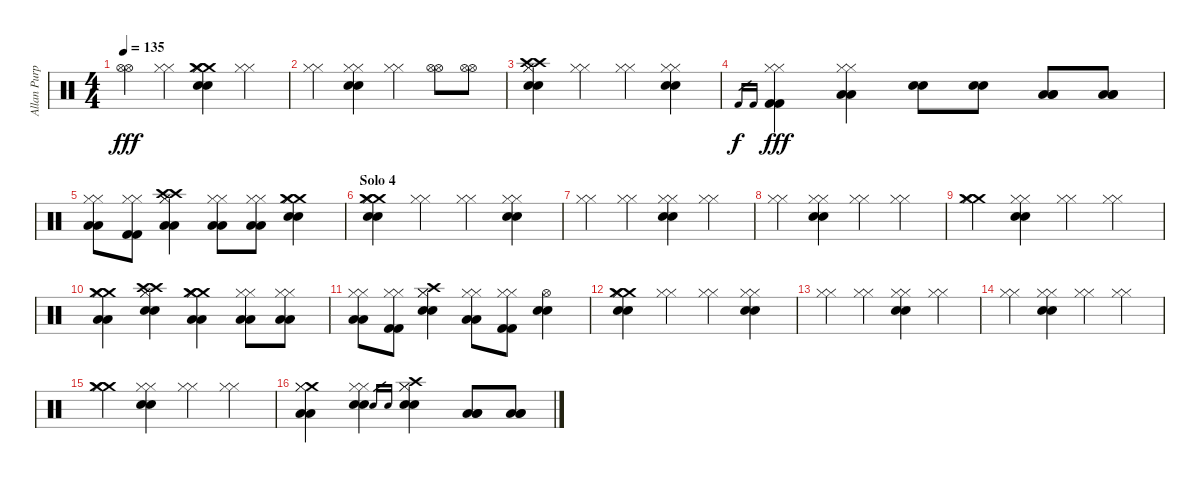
\track ("Allan Purple" "Allan Purp") {instrument percussion}
\staff {score}
\articulation defaults
\ts (4 4)
\tempo 135
\clef neutral
\ks c
("Hi-Hat (open)" "Hi-Hat (open)").4{dy fff} ("Hi-Hat (closed)" "Hi-Hat (closed)").4 ("Crash medium (hit)" "Crash medium (hit)" "Hi-Hat (closed)" "Hi-Hat (closed)" "Electric Snare (hit)" "Electric Snare (hit)").4 ("Hi-Hat (closed)" "Hi-Hat (closed)").4 |
("Hi-Hat (closed)" "Hi-Hat (closed)").4 ("Hi-Hat (closed)" "Hi-Hat (closed)" "Electric Snare (hit)" "Electric Snare (hit)").4 ("Hi-Hat (closed)" "Hi-Hat (closed)").4 ("Hi-Hat (open)" "Hi-Hat (open)").8 ("Hi-Hat (open)" "Hi-Hat (open)").8 |
("Crash high (hit)" "Crash high (hit)" "Hi-Hat (closed)" "Hi-Hat (closed)" "Electric Snare (hit)" "Electric Snare (hit)").4 ("Hi-Hat (closed)" "Hi-Hat (closed)").4 ("Hi-Hat (closed)" "Hi-Hat (closed)").4 ("Hi-Hat (closed)" "Hi-Hat (closed)" "Electric Snare (hit)" "Electric Snare (hit)").4 |
"Kick (hit) 2".16{gr dy f} "Kick (hit) 2".16{gr} ("Hi-Hat (closed)" "Hi-Hat (closed)" "Kick (hit) 2" "Kick (hit) 2").4{dy fff} ("Hi-Hat (closed)" "Hi-Hat (closed)" "Low Tom (hit)" "Low Tom (hit)").4 ("Electric Snare (hit)" "Electric Snare (hit)").8 ("Electric Snare (hit)" "Electric Snare (hit)").8 ("Low Tom (hit)" "Low Tom (hit)" "Low Tom (hit)").8 ("Low Tom (hit)" "Low Tom (hit)" "Low Tom (hit)").8 |
("Hi-Hat (closed)" "Hi-Hat (closed)" "Low Tom (hit)" "Low Tom (hit)").8 ("Hi-Hat (closed)" "Hi-Hat (closed)" "Kick (hit) 2" "Kick (hit) 2").8 ("Crash high (hit)" "Crash high (hit)" "Hi-Hat (closed)" "Hi-Hat (closed)" "Low Tom (hit)" "Low Tom (hit)").4 ("Hi-Hat (closed)" "Hi-Hat (closed)" "Low Tom (hit)" "Low Tom (hit)").8 ("Hi-Hat (closed)" "Hi-Hat (closed)" "Low Tom (hit)" "Low Tom (hit)").8 ("Crash medium (hit)" "Crash medium (hit)" "Hi-Hat (closed)" "Hi-Hat (closed)" "Electric Snare (hit)" "Electric Snare (hit)").4 |
\section ("" "Solo 4")
("Crash medium (hit)" "Crash medium (hit)" "Hi-Hat (closed)" "Hi-Hat (closed)" "Electric Snare (hit)" "Electric Snare (hit)").4 ("Hi-Hat (closed)" "Hi-Hat (closed)").4 ("Hi-Hat (closed)" "Hi-Hat (closed)").4 ("Hi-Hat (closed)" "Hi-Hat (closed)" "Electric Snare (hit)" "Electric Snare (hit)").4 |
("Hi-Hat (closed)" "Hi-Hat (closed)").4 ("Hi-Hat (closed)" "Hi-Hat (closed)").4 ("Hi-Hat (closed)" "Hi-Hat (closed)" "Electric Snare (hit)" "Electric Snare (hit)").4 ("Hi-Hat (closed)" "Hi-Hat (closed)").4 |
("Hi-Hat (closed)" "Hi-Hat (closed)").4 ("Hi-Hat (closed)" "Hi-Hat (closed)" "Electric Snare (hit)" "Electric Snare (hit)").4 ("Hi-Hat (closed)" "Hi-Hat (closed)").4 ("Hi-Hat (closed)" "Hi-Hat (closed)").4 |
("Crash medium (hit)" "Crash medium (hit)" "Hi-Hat (closed)" "Hi-Hat (closed)").4 ("Hi-Hat (closed)" "Hi-Hat (closed)" "Electric Snare (hit)" "Electric Snare (hit)").4 ("Hi-Hat (closed)" "Hi-Hat (closed)").4 ("Hi-Hat (closed)" "Hi-Hat (closed)").4 |
("Crash medium (hit)" "Crash medium (hit)" "Hi-Hat (closed)" "Hi-Hat (closed)" "Low Tom (hit)" "Low Tom (hit)").4 ("Crash high (hit)" "Crash high (hit)" "Hi-Hat (closed)" "Hi-Hat (closed)" "Electric Snare (hit)" "Electric Snare (hit)").4 ("Crash medium (hit)" "Crash medium (hit)" "Hi-Hat (closed)" "Hi-Hat (closed)" "Low Tom (hit)" "Low Tom (hit)").4 ("Hi-Hat (closed)" "Hi-Hat (closed)" "Low Tom (hit)" "Low Tom (hit)").8 ("Hi-Hat (closed)" "Hi-Hat (closed)" "Low Floor Tom (hit)" "Low Floor Tom (hit)").8 |
("Hi-Hat (closed)" "Hi-Hat (closed)" "Low Tom (hit)" "Low Tom (hit)").8 ("Hi-Hat (closed)" "Hi-Hat (closed)" "Kick (hit) 2" "Kick (hit) 2").8 ("Crash high (hit)" "Hi-Hat (closed)" "Hi-Hat (closed)" "Electric Snare (hit)" "Electric Snare (hit)").4 ("Hi-Hat (closed)" "Hi-Hat (closed)" "Low Tom (hit)" "Low Tom (hit)").8 ("Hi-Hat (closed)" "Hi-Hat (closed)" "Kick (hit) 2" "Kick (hit) 2").8 ("Hi-Hat (open)" "Electric Snare (hit)" "Electric Snare (hit)").4 |
("Crash medium (hit)" "Crash medium (hit)" "Hi-Hat (closed)" "Hi-Hat (closed)" "Electric Snare (hit)" "Electric Snare (hit)").4 ("Hi-Hat (closed)" "Hi-Hat (closed)").4 ("Hi-Hat (closed)" "Hi-Hat (closed)").4 ("Hi-Hat (closed)" "Hi-Hat (closed)" "Electric Snare (hit)" "Electric Snare (hit)").4 |
("Hi-Hat (closed)" "Hi-Hat (closed)").4 ("Hi-Hat (closed)" "Hi-Hat (closed)").4 ("Hi-Hat (closed)" "Hi-Hat (closed)" "Electric Snare (hit)" "Electric Snare (hit)").4 ("Hi-Hat (closed)" "Hi-Hat (closed)").4 |
("Hi-Hat (closed)" "Hi-Hat (closed)").4 ("Hi-Hat (closed)" "Hi-Hat (closed)" "Electric Snare (hit)" "Electric Snare (hit)").4 ("Hi-Hat (closed)" "Hi-Hat (closed)").4 ("Hi-Hat (closed)" "Hi-Hat (closed)").4 |
("Crash medium (hit)" "Crash medium (hit)" "Hi-Hat (closed)" "Hi-Hat (closed)").4 ("Hi-Hat (closed)" "Hi-Hat (closed)" "Electric Snare (hit)" "Electric Snare (hit)").4 ("Hi-Hat (closed)" "Hi-Hat (closed)").4 ("Hi-Hat (closed)" "Hi-Hat (closed)").4 |
("Crash medium (hit)" "Hi-Hat (closed)" "Hi-Hat (closed)" "Low Tom (hit)" "Low Tom (hit)").4 ("Hi-Hat (closed)" "Hi-Hat (closed)" "Electric Snare (hit)" "Electric Snare (hit)").4 "Electric Snare (hit)".16{gr} "Electric Snare (hit)".16{gr} ("Crash high (hit)" "Hi-Hat (closed)" "Hi-Hat (closed)" "Electric Snare (hit)" "Electric Snare (hit)").4 ("Low Tom (hit)" "Low Tom (hit)" "Low Tom (hit)").8 ("Low Tom (hit)" "Low Tom (hit)" "Low Tom (hit)").8
